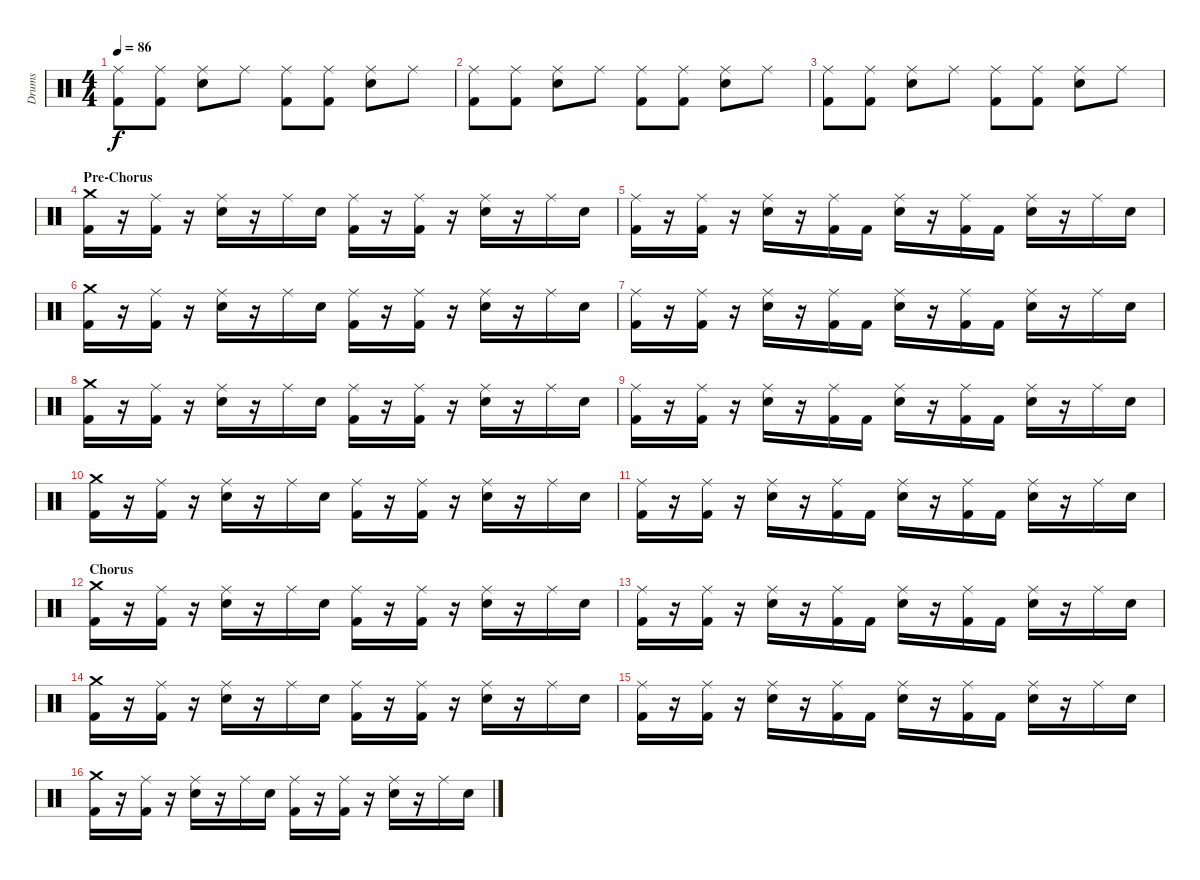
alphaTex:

\track ("Drums" "Drums") {instrument percussion}
\staff {score}
\articulation defaults
\ts (4 4)
\tempo 86
\clef neutral
\ks c
("Ride (middle)" "Kick (hit) 2").8{dy f} ("Ride (middle)" "Kick (hit) 2").8 ("Ride (middle)" "Snare (hit) 2").8 "Ride (middle)".8 ("Ride (middle)" "Kick (hit) 2").8 ("Ride (middle)" "Kick (hit) 2").8 ("Ride (middle)" "Snare (hit) 2").8 "Ride (middle)".8 |
("Ride (middle)" "Kick (hit) 2").8 ("Ride (middle)" "Kick (hit) 2").8 ("Ride (middle)" "Snare (hit) 2").8 "Ride (middle)".8 ("Ride (middle)" "Kick (hit) 2").8 ("Ride (middle)" "Kick (hit) 2").8 ("Ride (middle)" "Snare (hit) 2").8 "Ride (middle)".8 |
("Ride (middle)" "Kick (hit) 2").8 ("Ride (middle)" "Kick (hit) 2").8 ("Ride (middle)" "Snare (hit) 2").8 "Ride (middle)".8 ("Ride (middle)" "Kick (hit) 2").8 ("Ride (middle)" "Kick (hit) 2").8 ("Ride (middle)" "Snare (hit) 2").8 "Ride (middle)".8 |
\section ("" "Pre-Chorus")
("Crash medium (hit)" "Kick (hit) 2").16 r.16 ("Ride (middle)" "Kick (hit) 2").16 r.16 ("Ride (middle)" "Snare (hit) 2").16 r.16 "Ride (middle)".16 "Snare (hit) 2".16 ("Ride (middle)" "Kick (hit) 2").16 r.16 ("Ride (middle)" "Kick (hit) 2").16 r.16 ("Ride (middle)" "Snare (hit) 2").16 r.16 "Ride (middle)".16 "Snare (hit) 2".16 |
("Ride (middle)" "Kick (hit) 2").16 r.16 ("Ride (middle)" "Kick (hit) 2").16 r.16 ("Ride (middle)" "Snare (hit) 2").16 r.16 ("Ride (middle)" "Kick (hit) 2").16 "Kick (hit) 2".16 ("Ride (middle)" "Snare (hit) 2").16 r.16 ("Ride (middle)" "Kick (hit) 2").16 "Kick (hit) 2".16 ("Ride (middle)" "Snare (hit) 2").16 r.16 "Ride (middle)".16 "Snare (hit) 2".16 |
("Crash medium (hit)" "Kick (hit) 2").16 r.16 ("Ride (middle)" "Kick (hit) 2").16 r.16 ("Ride (middle)" "Snare (hit) 2").16 r.16 "Ride (middle)".16 "Snare (hit) 2".16 ("Ride (middle)" "Kick (hit) 2").16 r.16 ("Ride (middle)" "Kick (hit) 2").16 r.16 ("Ride (middle)" "Snare (hit) 2").16 r.16 "Ride (middle)".16 "Snare (hit) 2".16 |
("Ride (middle)" "Kick (hit) 2").16 r.16 ("Ride (middle)" "Kick (hit) 2").16 r.16 ("Ride (middle)" "Snare (hit) 2").16 r.16 ("Ride (middle)" "Kick (hit) 2").16 "Kick (hit) 2".16 ("Ride (middle)" "Snare (hit) 2").16 r.16 ("Ride (middle)" "Kick (hit) 2").16 "Kick (hit) 2".16 ("Ride (middle)" "Snare (hit) 2").16 r.16 "Ride (middle)".16 "Snare (hit) 2".16 |
("Crash medium (hit)" "Kick (hit) 2").16 r.16 ("Ride (middle)" "Kick (hit) 2").16 r.16 ("Ride (middle)" "Snare (hit) 2").16 r.16 "Ride (middle)".16 "Snare (hit) 2".16 ("Ride (middle)" "Kick (hit) 2").16 r.16 ("Ride (middle)" "Kick (hit) 2").16 r.16 ("Ride (middle)" "Snare (hit) 2").16 r.16 "Ride (middle)".16 "Snare (hit) 2".16 |
("Ride (middle)" "Kick (hit) 2").16 r.16 ("Ride (middle)" "Kick (hit) 2").16 r.16 ("Ride (middle)" "Snare (hit) 2").16 r.16 ("Ride (middle)" "Kick (hit) 2").16 "Kick (hit) 2".16 ("Ride (middle)" "Snare (hit) 2").16 r.16 ("Ride (middle)" "Kick (hit) 2").16 "Kick (hit) 2".16 ("Ride (middle)" "Snare (hit) 2").16 r.16 "Ride (middle)".16 "Snare (hit) 2".16 |
("Crash medium (hit)" "Kick (hit) 2").16 r.16 ("Ride (middle)" "Kick (hit) 2").16 r.16 ("Ride (middle)" "Snare (hit) 2").16 r.16 "Ride (middle)".16 "Snare (hit) 2".16 ("Ride (middle)" "Kick (hit) 2").16 r.16 ("Ride (middle)" "Kick (hit) 2").16 r.16 ("Ride (middle)" "Snare (hit) 2").16 r.16 "Ride (middle)".16 "Snare (hit) 2".16 |
("Ride (middle)" "Kick (hit) 2").16 r.16 ("Ride (middle)" "Kick (hit) 2").16 r.16 ("Ride (middle)" "Snare (hit) 2").16 r.16 ("Ride (middle)" "Kick (hit) 2").16 "Kick (hit) 2".16 ("Ride (middle)" "Snare (hit) 2").16 r.16 ("Ride (middle)" "Kick (hit) 2").16 "Kick (hit) 2".16 ("Ride (middle)" "Snare (hit) 2").16 r.16 "Ride (middle)".16 "Snare (hit) 2".16 |
\section ("" "Chorus")
("Crash medium (hit)" "Kick (hit) 2").16 r.16 ("Ride (middle)" "Kick (hit) 2").16 r.16 ("Ride (middle)" "Snare (hit) 2").16 r.16 "Ride (middle)".16 "Snare (hit) 2".16 ("Ride (middle)" "Kick (hit) 2").16 r.16 ("Ride (middle)" "Kick (hit) 2").16 r.16 ("Ride (middle)" "Snare (hit) 2").16 r.16 "Ride (middle)".16 "Snare (hit) 2".16 |
("Ride (middle)" "Kick (hit) 2").16 r.16 ("Ride (middle)" "Kick (hit) 2").16 r.16 ("Ride (middle)" "Snare (hit) 2").16 r.16 ("Ride (middle)" "Kick (hit) 2").16 "Kick (hit) 2".16 ("Ride (middle)" "Snare (hit) 2").16 r.16 ("Ride (middle)" "Kick (hit) 2").16 "Kick (hit) 2".16 ("Ride (middle)" "Snare (hit) 2").16 r.16 "Ride (middle)".16 "Snare (hit) 2".16 |
("Crash medium (hit)" "Kick (hit) 2").16 r.16 ("Ride (middle)" "Kick (hit) 2").16 r.16 ("Ride (middle)" "Snare (hit) 2").16 r.16 "Ride (middle)".16 "Snare (hit) 2".16 ("Ride (middle)" "Kick (hit) 2").16 r.16 ("Ride (middle)" "Kick (hit) 2").16 r.16 ("Ride (middle)" "Snare (hit) 2").16 r.16 "Ride (middle)".16 "Snare (hit) 2".16 |
("Ride (middle)" "Kick (hit) 2").16 r.16 ("Ride (middle)" "Kick (hit) 2").16 r.16 ("Ride (middle)" "Snare (hit) 2").16 r.16 ("Ride (middle)" "Kick (hit) 2").16 "Kick (hit) 2".16 ("Ride (middle)" "Snare (hit) 2").16 r.16 ("Ride (middle)" "Kick (hit) 2").16 "Kick (hit) 2".16 ("Ride (middle)" "Snare (hit) 2").16 r.16 "Ride (middle)".16 "Snare (hit) 2".16 |
("Crash medium (hit)" "Kick (hit) 2").16 r.16 ("Ride (middle)" "Kick (hit) 2").16 r.16 ("Ride (middle)" "Snare (hit) 2").16 r.16 "Ride (middle)".16 "Snare (hit) 2".16 ("Ride (middle)" "Kick (hit) 2").16 r.16 ("Ride (middle)" "Kick (hit) 2").16 r.16 ("Ride (middle)" "Snare (hit) 2").16 r.16 "Ride (middle)".16 "Snare (hit) 2".16
